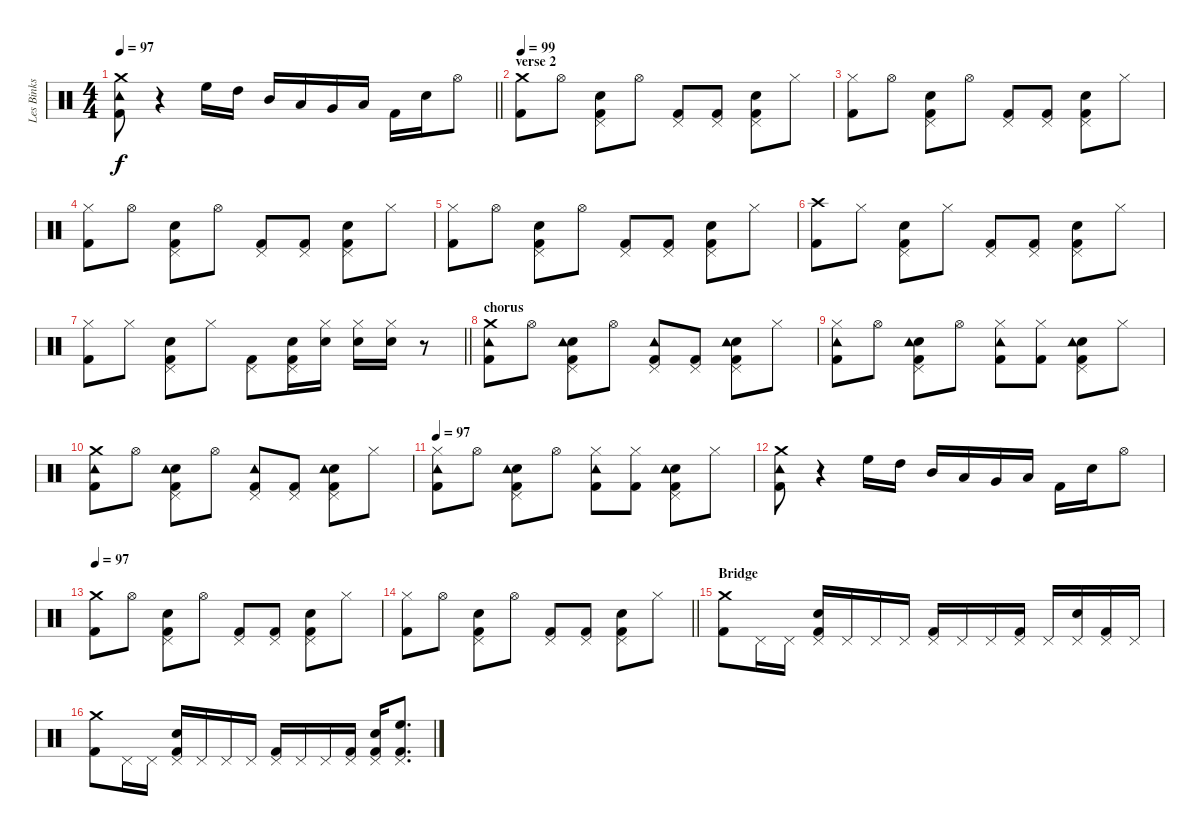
\track ("Les Binks" "Les Binks") {instrument percussion}
\staff {score}
\articulation defaults
\ts (4 4)
\tempo 97
\clef neutral
\barLineRight lightlight
\ks c
("Crash medium (hit)" "Tambourine (hit)" "Kick (hit) 2").8{dy f} r.4 "High Floor Tom (hit)".16 "High Tom (hit)".16 "Mid Tom (hit)".16 "Low Tom (hit)".16 "Very Low Tom (hit)".16 "Low Floor Tom (hit)".16 "Kick (hit) 2".16 "Snare (hit) 2".16 "Hi-Hat (open)".8 |
\section ("" "verse 2")
\tempo 99
("Crash medium (hit)" "Kick (hit) 2").8 "Hi-Hat (open)".8 ("Pedal Hi-Hat (hit)" "Snare (hit) 2" "Kick (hit) 2").8 "Hi-Hat (open)".8 ("Pedal Hi-Hat (hit)" "Kick (hit) 2").8 ("Pedal Hi-Hat (hit)" "Kick (hit) 2").8 ("Pedal Hi-Hat (hit)" "Snare (hit) 2" "Kick (hit) 2").8 "Hi-Hat (closed)".8 |
("Hi-Hat (closed)" "Kick (hit) 2").8 "Hi-Hat (open)".8 ("Pedal Hi-Hat (hit)" "Snare (hit) 2" "Kick (hit) 2").8 "Hi-Hat (open)".8 ("Pedal Hi-Hat (hit)" "Kick (hit) 2").8 ("Pedal Hi-Hat (hit)" "Kick (hit) 2").8 ("Pedal Hi-Hat (hit)" "Snare (hit) 2" "Kick (hit) 2").8 "Hi-Hat (closed)".8 |
("Hi-Hat (closed)" "Kick (hit) 2").8 "Hi-Hat (open)".8 ("Pedal Hi-Hat (hit)" "Snare (hit) 2" "Kick (hit) 2").8 "Hi-Hat (open)".8 ("Pedal Hi-Hat (hit)" "Kick (hit) 2").8 ("Pedal Hi-Hat (hit)" "Kick (hit) 2").8 ("Pedal Hi-Hat (hit)" "Snare (hit) 2" "Kick (hit) 2").8 "Hi-Hat (closed)".8 |
("Hi-Hat (closed)" "Kick (hit) 2").8 "Hi-Hat (open)".8 ("Pedal Hi-Hat (hit)" "Snare (hit) 2" "Kick (hit) 2").8 "Hi-Hat (open)".8 ("Pedal Hi-Hat (hit)" "Kick (hit) 2").8 ("Pedal Hi-Hat (hit)" "Kick (hit) 2").8 ("Pedal Hi-Hat (hit)" "Snare (hit) 2" "Kick (hit) 2").8 "Hi-Hat (closed)".8 |
("Crash high (hit)" "Kick (hit) 2").8 "Hi-Hat (closed)".8 ("Pedal Hi-Hat (hit)" "Snare (hit) 2" "Kick (hit) 2").8 "Hi-Hat (closed)".8 ("Pedal Hi-Hat (hit)" "Kick (hit) 2").8 ("Pedal Hi-Hat (hit)" "Kick (hit) 2").8 ("Pedal Hi-Hat (hit)" "Snare (hit) 2" "Kick (hit) 2").8 "Hi-Hat (closed)".8 |
\barLineRight lightlight
("Hi-Hat (closed)" "Kick (hit) 2").8 "Hi-Hat (closed)".8 ("Pedal Hi-Hat (hit)" "Snare (hit) 2" "Kick (hit) 2").8 "Hi-Hat (closed)".8 ("Pedal Hi-Hat (hit)" "Kick (hit) 2").8 ("Pedal Hi-Hat (hit)" "Snare (hit) 2" "Kick (hit) 2").16 ("Hi-Hat (closed)" "Snare (hit) 2").16 ("Hi-Hat (closed)" "Snare (hit) 2").16 ("Hi-Hat (closed)" "Snare (hit) 2").16 r.8 |
\section ("" "chorus")
("Crash medium (hit)" "Tambourine (hit)" "Kick (hit) 2").8 "Hi-Hat (open)".8 ("Pedal Hi-Hat (hit)" "Electric Snare (hit)" "Tambourine (hit)" "Kick (hit) 2").8 "Hi-Hat (open)".8 ("Pedal Hi-Hat (hit)" "Tambourine (hit)" "Kick (hit) 2").8 ("Pedal Hi-Hat (hit)" "Kick (hit) 2").8 ("Pedal Hi-Hat (hit)" "Electric Snare (hit)" "Tambourine (hit)" "Kick (hit) 2").8 "Hi-Hat (closed)".8 |
("Hi-Hat (closed)" "Tambourine (hit)" "Kick (hit) 2").8 "Hi-Hat (open)".8 ("Pedal Hi-Hat (hit)" "Electric Snare (hit)" "Tambourine (hit)" "Kick (hit) 2").8 "Hi-Hat (open)".8 ("Hi-Hat (closed)" "Tambourine (hit)" "Kick (hit) 2").8 ("Hi-Hat (closed)" "Kick (hit) 2").8 ("Pedal Hi-Hat (hit)" "Electric Snare (hit)" "Tambourine (hit)" "Kick (hit) 2").8 "Hi-Hat (closed)".8 |
("Crash medium (hit)" "Tambourine (hit)" "Kick (hit) 2").8 "Hi-Hat (open)".8 ("Pedal Hi-Hat (hit)" "Electric Snare (hit)" "Tambourine (hit)" "Kick (hit) 2").8 "Hi-Hat (open)".8 ("Pedal Hi-Hat (hit)" "Tambourine (hit)" "Kick (hit) 2").8 ("Pedal Hi-Hat (hit)" "Kick (hit) 2").8 ("Pedal Hi-Hat (hit)" "Electric Snare (hit)" "Tambourine (hit)" "Kick (hit) 2").8 "Hi-Hat (closed)".8 |
\tempo 97
("Hi-Hat (closed)" "Tambourine (hit)" "Kick (hit) 2").8 "Hi-Hat (open)".8 ("Pedal Hi-Hat (hit)" "Electric Snare (hit)" "Tambourine (hit)" "Kick (hit) 2").8 "Hi-Hat (open)".8 ("Hi-Hat (closed)" "Tambourine (hit)" "Kick (hit) 2").8 ("Hi-Hat (closed)" "Kick (hit) 2").8 ("Pedal Hi-Hat (hit)" "Electric Snare (hit)" "Tambourine (hit)" "Kick (hit) 2").8 "Hi-Hat (closed)".8 |
("Crash medium (hit)" "Tambourine (hit)" "Kick (hit) 2").8 r.4 "High Floor Tom (hit)".16 "High Tom (hit)".16 "Mid Tom (hit)".16 "Low Tom (hit)".16 "Very Low Tom (hit)".16 "Low Floor Tom (hit)".16 "Kick (hit) 2".16 "Snare (hit) 2".16 "Hi-Hat (open)".8 |
\tempo 97
("Crash medium (hit)" "Kick (hit) 2").8 "Hi-Hat (open)".8 ("Pedal Hi-Hat (hit)" "Snare (hit) 2" "Kick (hit) 2").8 "Hi-Hat (open)".8 ("Pedal Hi-Hat (hit)" "Kick (hit) 2").8 ("Pedal Hi-Hat (hit)" "Kick (hit) 2").8 ("Pedal Hi-Hat (hit)" "Snare (hit) 2" "Kick (hit) 2").8 "Hi-Hat (closed)".8 |
\barLineRight lightlight
("Hi-Hat (closed)" "Kick (hit) 2").8 "Hi-Hat (open)".8 ("Pedal Hi-Hat (hit)" "Snare (hit) 2" "Kick (hit) 2").8 "Hi-Hat (open)".8 ("Pedal Hi-Hat (hit)" "Kick (hit) 2").8 ("Pedal Hi-Hat (hit)" "Kick (hit) 2").8 ("Pedal Hi-Hat (hit)" "Snare (hit) 2" "Kick (hit) 2").8 "Hi-Hat (closed)".8 |
\section ("" "Bridge")
("Crash medium (hit)" "Kick (hit) 2").8 "Pedal Hi-Hat (hit)".16 "Pedal Hi-Hat (hit)".16 ("Pedal Hi-Hat (hit)" "Electric Snare (hit)" "Kick (hit) 2").16 "Pedal Hi-Hat (hit)".16 "Pedal Hi-Hat (hit)".16 "Pedal Hi-Hat (hit)".16 ("Pedal Hi-Hat (hit)" "Kick (hit) 2").16 "Pedal Hi-Hat (hit)".16 "Pedal Hi-Hat (hit)".16 ("Pedal Hi-Hat (hit)" "Kick (hit) 2").16 "Pedal Hi-Hat (hit)".16 ("Pedal Hi-Hat (hit)" "Electric Snare (hit)").16 ("Pedal Hi-Hat (hit)" "Kick (hit) 2").16 "Pedal Hi-Hat (hit)".16 |
("Crash medium (hit)" "Kick (hit) 2").8 "Pedal Hi-Hat (hit)".16 "Pedal Hi-Hat (hit)".16 ("Pedal Hi-Hat (hit)" "Electric Snare (hit)" "Kick (hit) 2").16 "Pedal Hi-Hat (hit)".16 "Pedal Hi-Hat (hit)".16 "Pedal Hi-Hat (hit)".16 ("Pedal Hi-Hat (hit)" "Kick (hit) 2").16 "Pedal Hi-Hat (hit)".16 "Pedal Hi-Hat (hit)".16 ("Pedal Hi-Hat (hit)" "Kick (hit) 2").16 ("Pedal Hi-Hat (hit)" "Electric Snare (hit)" "Kick (hit) 2").16 ("Pedal Hi-Hat (hit)" "High Floor Tom (hit)" "Kick (hit) 2").8{d}
